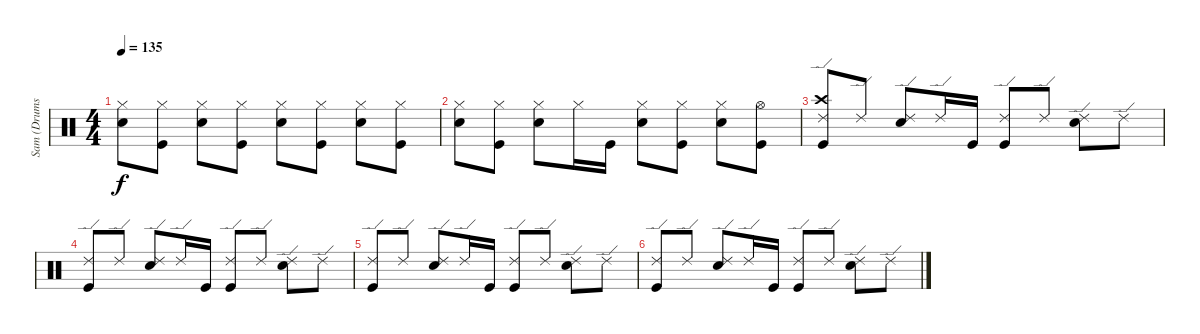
\track ("Sam (Drums)" "Sam (Drums") {instrument percussion}
\staff {score}
\articulation defaults
\ts (4 4)
\tempo 135
\clef neutral
\ks c
("Hi-Hat (closed)" "Snare (hit) 2").8{dy f} ("Hi-Hat (closed)" "Kick (hit)").8 ("Hi-Hat (closed)" "Snare (hit) 2").8 ("Hi-Hat (closed)" "Kick (hit)").8 ("Hi-Hat (closed)" "Snare (hit) 2").8 ("Hi-Hat (closed)" "Kick (hit)").8 ("Hi-Hat (closed)" "Snare (hit) 2").8 ("Hi-Hat (closed)" "Kick (hit)").8 |
("Hi-Hat (closed)" "Snare (hit) 2").8 ("Hi-Hat (closed)" "Kick (hit)").8 ("Hi-Hat (closed)" "Snare (hit) 2").8 "Hi-Hat (closed)".16 "Kick (hit)".16 ("Hi-Hat (closed)" "Snare (hit) 2").8 ("Hi-Hat (closed)" "Kick (hit)").8 ("Hi-Hat (closed)" "Snare (hit) 2").8 ("Hi-Hat (open)" "Kick (hit)").8 |
("Crash high (hit)" "Ride (edge) 2" "Kick (hit)").8{volume 0} "Ride (edge) 2".8 ("Ride (edge) 2" "Snare (hit) 2").8 "Ride (edge) 2".16 "Kick (hit)".16 ("Ride (edge) 2" "Kick (hit)").8 "Ride (edge) 2".8 ("Ride (edge) 2" "Snare (hit) 2").8 "Ride (edge) 2".8 |
("Ride (edge) 2" "Kick (hit)").8 "Ride (edge) 2".8 ("Ride (edge) 2" "Snare (hit) 2").8 "Ride (edge) 2".16 "Kick (hit)".16 ("Ride (edge) 2" "Kick (hit)").8 "Ride (edge) 2".8 ("Ride (edge) 2" "Snare (hit) 2").8 "Ride (edge) 2".8 |
("Ride (edge) 2" "Kick (hit)").8 "Ride (edge) 2".8 ("Ride (edge) 2" "Snare (hit) 2").8 "Ride (edge) 2".16 "Kick (hit)".16 ("Ride (edge) 2" "Kick (hit)").8 "Ride (edge) 2".8 ("Ride (edge) 2" "Snare (hit) 2").8 "Ride (edge) 2".8 |
("Ride (edge) 2" "Kick (hit)").8 "Ride (edge) 2".8 ("Ride (edge) 2" "Snare (hit) 2").8 "Ride (edge) 2".16 "Kick (hit)".16 ("Ride (edge) 2" "Kick (hit)").8 "Ride (edge) 2".8 ("Ride (edge) 2" "Snare (hit) 2").8 "Ride (edge) 2".8
